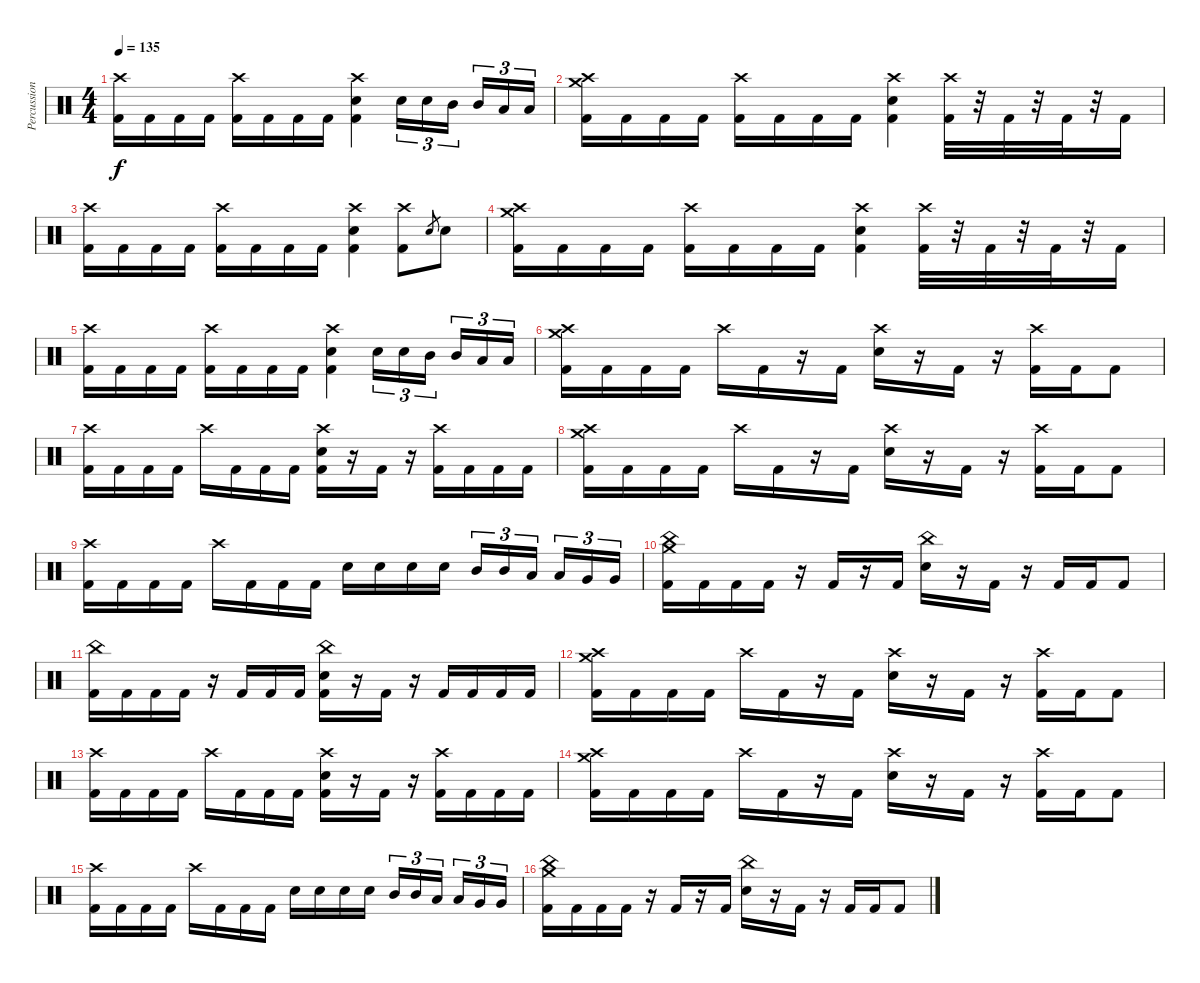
\track ("Percussion" "Percussion") {instrument percussion}
\staff {score}
\articulation defaults
\ts (4 4)
\tempo 135
\clef neutral
\ks c
("Crash high (hit)" "Kick (hit) 2").16{dy f} "Kick (hit) 2".16 "Kick (hit) 2".16 "Kick (hit) 2".16 ("Crash high (hit)" "Kick (hit) 2").16 "Kick (hit) 2".16 "Kick (hit) 2".16 "Kick (hit) 2".16 ("Crash high (hit)" "Snare (hit) 2" "Kick (hit) 2").4 "Snare (hit) 2".16{tu (3 2)} "Snare (hit) 2".16{tu (3 2)} "Mid Tom (hit)".16{tu (3 2) beam splitsecondary} "Mid Tom (hit)".16{tu (3 2)} "Low Tom (hit)".16{tu (3 2)} "Low Tom (hit)".16{tu (3 2)} |
("Crash high (hit)" "Crash medium (hit)" "Kick (hit) 2").16 "Kick (hit) 2".16 "Kick (hit) 2".16 "Kick (hit) 2".16 ("Crash high (hit)" "Kick (hit) 2").16 "Kick (hit) 2".16 "Kick (hit) 2".16 "Kick (hit) 2".16 ("Crash high (hit)" "Snare (hit) 2" "Kick (hit) 2").4 ("Crash high (hit)" "Kick (hit) 2").32 r.32 "Kick (hit) 2".32 r.32 "Kick (hit) 2".32 r.32 "Kick (hit) 2".16 |
("Crash high (hit)" "Kick (hit) 2").16 "Kick (hit) 2".16 "Kick (hit) 2".16 "Kick (hit) 2".16 ("Crash high (hit)" "Kick (hit) 2").16 "Kick (hit) 2".16 "Kick (hit) 2".16 "Kick (hit) 2".16 ("Crash high (hit)" "Snare (hit) 2" "Kick (hit) 2").4 ("Crash high (hit)" "Kick (hit) 2").8 "Electric Snare (hit)".8{gr} "Electric Snare (hit)".8 |
("Crash high (hit)" "Crash medium (hit)" "Kick (hit) 2").16 "Kick (hit) 2".16 "Kick (hit) 2".16 "Kick (hit) 2".16 ("Crash high (hit)" "Kick (hit) 2").16 "Kick (hit) 2".16 "Kick (hit) 2".16 "Kick (hit) 2".16 ("Crash high (hit)" "Snare (hit) 2" "Kick (hit) 2").4 ("Crash high (hit)" "Kick (hit) 2").32 r.32 "Kick (hit) 2".32 r.32 "Kick (hit) 2".32 r.32 "Kick (hit) 2".16 |
("Crash high (hit)" "Kick (hit) 2").16 "Kick (hit) 2".16 "Kick (hit) 2".16 "Kick (hit) 2".16 ("Crash high (hit)" "Kick (hit) 2").16 "Kick (hit) 2".16 "Kick (hit) 2".16 "Kick (hit) 2".16 ("Crash high (hit)" "Snare (hit) 2" "Kick (hit) 2").4 "Snare (hit) 2".16{tu (3 2)} "Snare (hit) 2".16{tu (3 2)} "Mid Tom (hit)".16{tu (3 2) beam splitsecondary} "Mid Tom (hit)".16{tu (3 2)} "Low Tom (hit)".16{tu (3 2)} "Low Tom (hit)".16{tu (3 2)} |
("Crash high (hit)" "Crash medium (hit)" "Kick (hit) 2").16 "Kick (hit) 2".16 "Kick (hit) 2".16 "Kick (hit) 2".16 "Crash high (hit)".16 "Kick (hit) 2".16 r.16 "Kick (hit) 2".16 ("Crash high (hit)" "Snare (hit) 2").16 r.16 "Kick (hit) 2".16 r.16 ("Crash high (hit)" "Kick (hit) 2").16 "Kick (hit) 2".16 "Kick (hit) 2".8 |
("Crash high (hit)" "Kick (hit) 2").16 "Kick (hit) 2".16 "Kick (hit) 2".16 "Kick (hit) 2".16 "Crash high (hit)".16 "Kick (hit) 2".16 "Kick (hit) 2".16 "Kick (hit) 2".16 ("Crash high (hit)" "Snare (hit) 2" "Kick (hit) 2").16 r.16 "Kick (hit) 2".16 r.16 ("Crash high (hit)" "Kick (hit) 2").16 "Kick (hit) 2".16 "Kick (hit) 2".16 "Kick (hit) 2".16 |
("Crash high (hit)" "Crash medium (hit)" "Kick (hit) 2").16 "Kick (hit) 2".16 "Kick (hit) 2".16 "Kick (hit) 2".16 "Crash high (hit)".16 "Kick (hit) 2".16 r.16 "Kick (hit) 2".16 ("Crash high (hit)" "Snare (hit) 2").16 r.16 "Kick (hit) 2".16 r.16 ("Crash high (hit)" "Kick (hit) 2").16 "Kick (hit) 2".16 "Kick (hit) 2".8 |
("Crash high (hit)" "Kick (hit) 2").16 "Kick (hit) 2".16 "Kick (hit) 2".16 "Kick (hit) 2".16 "Crash high (hit)".16 "Kick (hit) 2".16 "Kick (hit) 2".16 "Kick (hit) 2".16 "Snare (hit) 2".16 "Snare (hit) 2".16 "Snare (hit) 2".16 "Snare (hit) 2".16 "Mid Tom (hit)".16{tu (3 2)} "Mid Tom (hit)".16{tu (3 2)} "Low Tom (hit)".16{tu (3 2) beam splitsecondary} "Low Tom (hit)".16{tu (3 2)} "Very Low Tom (hit)".16{tu (3 2)} "Very Low Tom (hit)".16{tu (3 2)} |
("China (hit)" "Crash medium (hit)" "Kick (hit) 2").16 "Kick (hit) 2".16 "Kick (hit) 2".16 "Kick (hit) 2".16 r.16 "Kick (hit) 2".16 r.16 "Kick (hit) 2".16 ("China (hit)" "Snare (hit) 2").16 r.16 "Kick (hit) 2".16 r.16 "Kick (hit) 2".16 "Kick (hit) 2".16 "Kick (hit) 2".8 |
("China (hit)" "Kick (hit) 2").16 "Kick (hit) 2".16 "Kick (hit) 2".16 "Kick (hit) 2".16 r.16 "Kick (hit) 2".16 "Kick (hit) 2".16 "Kick (hit) 2".16 ("China (hit)" "Snare (hit) 2" "Kick (hit) 2").16 r.16 "Kick (hit) 2".16 r.16 "Kick (hit) 2".16 "Kick (hit) 2".16 "Kick (hit) 2".16 "Kick (hit) 2".16 |
("Crash high (hit)" "Crash medium (hit)" "Kick (hit) 2").16 "Kick (hit) 2".16 "Kick (hit) 2".16 "Kick (hit) 2".16 "Crash high (hit)".16 "Kick (hit) 2".16 r.16 "Kick (hit) 2".16 ("Crash high (hit)" "Snare (hit) 2").16 r.16 "Kick (hit) 2".16 r.16 ("Crash high (hit)" "Kick (hit) 2").16 "Kick (hit) 2".16 "Kick (hit) 2".8 |
("Crash high (hit)" "Kick (hit) 2").16 "Kick (hit) 2".16 "Kick (hit) 2".16 "Kick (hit) 2".16 "Crash high (hit)".16 "Kick (hit) 2".16 "Kick (hit) 2".16 "Kick (hit) 2".16 ("Crash high (hit)" "Snare (hit) 2" "Kick (hit) 2").16 r.16 "Kick (hit) 2".16 r.16 ("Crash high (hit)" "Kick (hit) 2").16 "Kick (hit) 2".16 "Kick (hit) 2".16 "Kick (hit) 2".16 |
("Crash high (hit)" "Crash medium (hit)" "Kick (hit) 2").16 "Kick (hit) 2".16 "Kick (hit) 2".16 "Kick (hit) 2".16 "Crash high (hit)".16 "Kick (hit) 2".16 r.16 "Kick (hit) 2".16 ("Crash high (hit)" "Snare (hit) 2").16 r.16 "Kick (hit) 2".16 r.16 ("Crash high (hit)" "Kick (hit) 2").16 "Kick (hit) 2".16 "Kick (hit) 2".8 |
("Crash high (hit)" "Kick (hit) 2").16 "Kick (hit) 2".16 "Kick (hit) 2".16 "Kick (hit) 2".16 "Crash high (hit)".16 "Kick (hit) 2".16 "Kick (hit) 2".16 "Kick (hit) 2".16 "Snare (hit) 2".16 "Snare (hit) 2".16 "Snare (hit) 2".16 "Snare (hit) 2".16 "Mid Tom (hit)".16{tu (3 2)} "Mid Tom (hit)".16{tu (3 2)} "Low Tom (hit)".16{tu (3 2) beam splitsecondary} "Low Tom (hit)".16{tu (3 2)} "Very Low Tom (hit)".16{tu (3 2)} "Very Low Tom (hit)".16{tu (3 2)} |
("China (hit)" "Crash medium (hit)" "Kick (hit) 2").16 "Kick (hit) 2".16 "Kick (hit) 2".16 "Kick (hit) 2".16 r.16 "Kick (hit) 2".16 r.16 "Kick (hit) 2".16 ("China (hit)" "Snare (hit) 2").16 r.16 "Kick (hit) 2".16 r.16 "Kick (hit) 2".16 "Kick (hit) 2".16 "Kick (hit) 2".8
